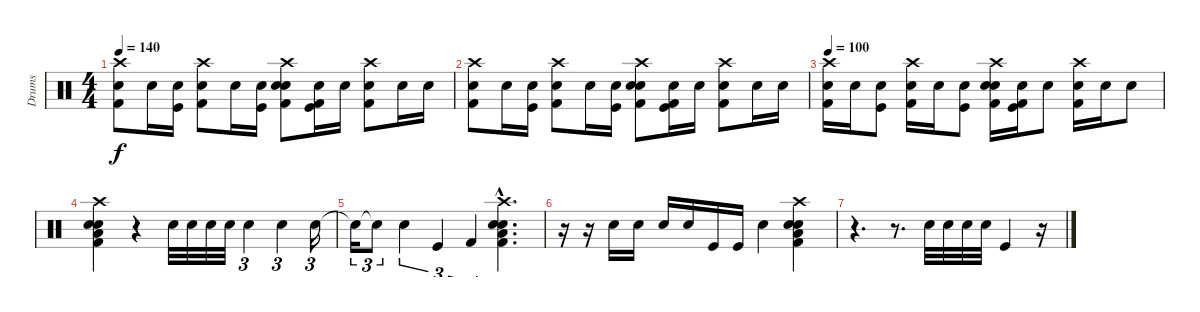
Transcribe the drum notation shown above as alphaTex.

\track ("Drums" "Drums") {instrument percussion}
\staff {score}
\articulation defaults
\ts (4 4)
\tempo 140
\clef neutral
\ks c
("Crash high (hit)" "Electric Snare (hit)" "Kick (hit) 2").8{dy f} "Electric Snare (hit)".16 ("Kick (hit)" "Electric Snare (hit)").16 ("Crash high (hit)" "Electric Snare (hit)" "Kick (hit) 2").8 "Electric Snare (hit)".16 ("Kick (hit)" "Electric Snare (hit)").16 ("Crash high (hit)" "Electric Snare (hit)" "Snare (hit) 2" "Kick (hit) 2").8 ("Electric Snare (hit)" "Kick (hit)" "Kick (hit) 2").16 "Electric Snare (hit)".16 ("Crash high (hit)" "Electric Snare (hit)" "Kick (hit) 2").8 "Electric Snare (hit)".16 "Electric Snare (hit)".16 |
("Crash high (hit)" "Electric Snare (hit)" "Kick (hit) 2").8 "Electric Snare (hit)".16 ("Kick (hit)" "Electric Snare (hit)").16 ("Crash high (hit)" "Electric Snare (hit)" "Kick (hit) 2").8 "Electric Snare (hit)".16 ("Kick (hit)" "Electric Snare (hit)").16 ("Crash high (hit)" "Electric Snare (hit)" "Snare (hit) 2" "Kick (hit) 2").8 ("Electric Snare (hit)" "Kick (hit)" "Kick (hit) 2").16 "Electric Snare (hit)".16 ("Crash high (hit)" "Electric Snare (hit)" "Kick (hit) 2").8 "Electric Snare (hit)".16 "Electric Snare (hit)".16 |
\tempo 100
("Crash high (hit)" "Electric Snare (hit)" "Kick (hit) 2").16 "Electric Snare (hit)".16 ("Kick (hit)" "Electric Snare (hit)").8 ("Crash high (hit)" "Electric Snare (hit)" "Kick (hit) 2").16 "Electric Snare (hit)".16 ("Kick (hit)" "Electric Snare (hit)").8 ("Crash high (hit)" "Electric Snare (hit)" "Snare (hit) 2" "Kick (hit) 2").16 ("Electric Snare (hit)" "Kick (hit)" "Kick (hit) 2").16 "Electric Snare (hit)".8 ("Crash high (hit)" "Electric Snare (hit)" "Kick (hit) 2").16 "Electric Snare (hit)".16 "Electric Snare (hit)".8 |
("Crash high (hit)" "Low Tom (hit)" "Electric Snare (hit)" "Kick (hit) 2" "Snare (hit) 2").4 r.4 "Electric Snare (hit)".32 "Electric Snare (hit)".32 "Electric Snare (hit)".32 "Electric Snare (hit)".32 "Electric Snare (hit)".4{tu (3 2)} "Electric Snare (hit)".4{tu (3 2)} "Electric Snare (hit)".16{tu (3 2)} |
"Electric Snare (hit)"{t}.16{tu (3 2)} "Snare (hit)"{t}.8{tu (3 2)} "Snare (hit) 2".4{tu (3 2)} "Kick (hit)".4{tu (3 2)} "Kick (hit) 2".4{tu (3 2)} ("Crash high (hit)"{hac} "Low Tom (hit)"{hac} "Electric Snare (hit)"{hac} "Kick (hit) 2"{hac} "Snare (hit) 2"{hac}).4{d} |
r.16 r.16 "Electric Snare (hit)".16 "Electric Snare (hit)".16 "Snare (hit) 2".16 "Snare (hit) 2".16 "Kick (hit)".16 "Kick (hit)".16 "Electric Snare (hit)".4 ("Crash high (hit)" "Low Tom (hit)" "Electric Snare (hit)" "Kick (hit) 2" "Snare (hit) 2").4 |
r.4{d} r.8{d} "Electric Snare (hit)".32 "Electric Snare (hit)".32 "Snare (hit) 2".32 "Snare (hit) 2".32 "Kick (hit)".4 r.16
